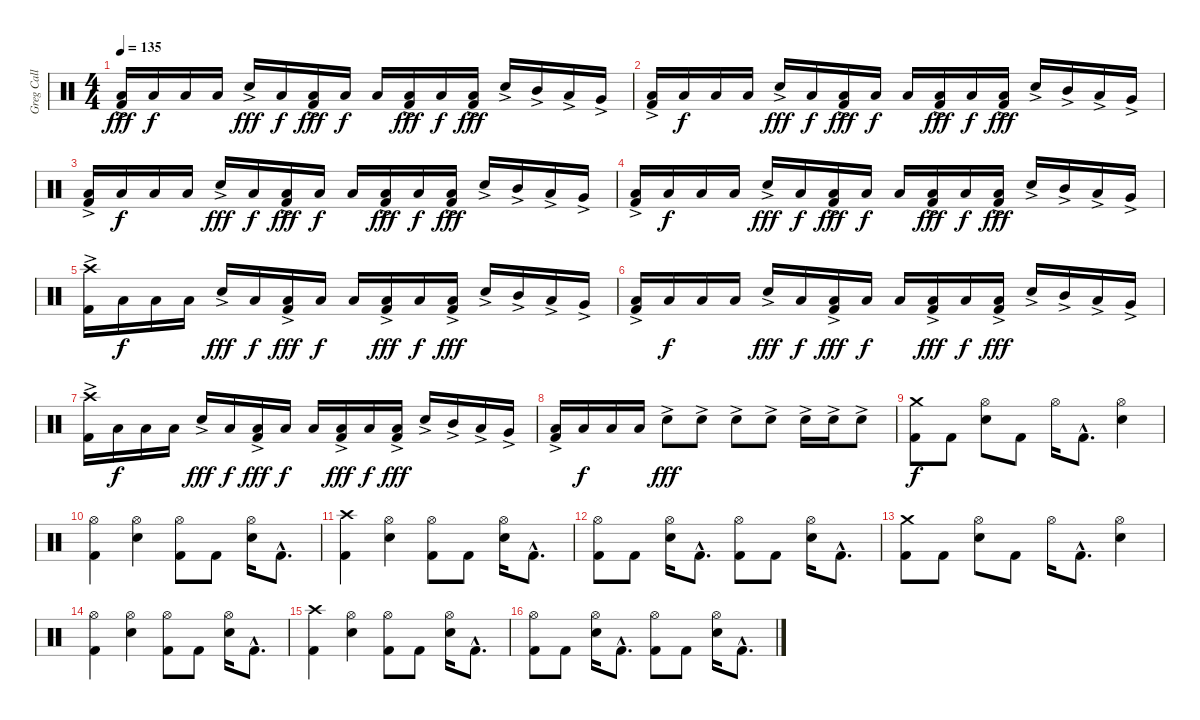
\track ("Greg Call (Drums)" "Greg Call ") {instrument percussion}
\staff {score}
\articulation defaults
\ts (4 4)
\tempo 135
\clef neutral
\ks c
("Low Floor Tom (hit)" "Kick (hit) 2"{ac}).16{dy fff} "Low Floor Tom (hit)".16{dy f} "Low Floor Tom (hit)".16 "Low Floor Tom (hit)".16 "Snare (hit) 2"{ac}.16{dy fff} "Low Floor Tom (hit)".16{dy f} ("Kick (hit) 2" "Low Floor Tom (hit)"{ac}).16{dy fff} "Low Floor Tom (hit)".16{dy f} "Low Floor Tom (hit)".16 ("Kick (hit) 2" "Low Floor Tom (hit)"{ac}).16{dy fff} "Low Floor Tom (hit)".16{dy f} ("Kick (hit) 2" "Low Floor Tom (hit)"{ac}).16{dy fff} "Snare (hit) 2"{ac}.16 "Mid Tom (hit)"{ac}.16 "Low Tom (hit)"{ac}.16 "Very Low Tom (hit)"{ac}.16 |
("Low Floor Tom (hit)" "Kick (hit) 2"{ac}).16 "Low Floor Tom (hit)".16{dy f} "Low Floor Tom (hit)".16 "Low Floor Tom (hit)".16 "Snare (hit) 2"{ac}.16{dy fff} "Low Floor Tom (hit)".16{dy f} ("Kick (hit) 2" "Low Floor Tom (hit)"{ac}).16{dy fff} "Low Floor Tom (hit)".16{dy f} "Low Floor Tom (hit)".16 ("Kick (hit) 2" "Low Floor Tom (hit)"{ac}).16{dy fff} "Low Floor Tom (hit)".16{dy f} ("Kick (hit) 2" "Low Floor Tom (hit)"{ac}).16{dy fff} "Snare (hit) 2"{ac}.16 "Mid Tom (hit)"{ac}.16 "Low Tom (hit)"{ac}.16 "Very Low Tom (hit)"{ac}.16 |
("Low Floor Tom (hit)" "Kick (hit) 2"{ac}).16 "Low Floor Tom (hit)".16{dy f} "Low Floor Tom (hit)".16 "Low Floor Tom (hit)".16 "Snare (hit) 2"{ac}.16{dy fff} "Low Floor Tom (hit)".16{dy f} ("Kick (hit) 2" "Low Floor Tom (hit)"{ac}).16{dy fff} "Low Floor Tom (hit)".16{dy f} "Low Floor Tom (hit)".16 ("Kick (hit) 2" "Low Floor Tom (hit)"{ac}).16{dy fff} "Low Floor Tom (hit)".16{dy f} ("Kick (hit) 2" "Low Floor Tom (hit)"{ac}).16{dy fff} "Snare (hit) 2"{ac}.16 "Mid Tom (hit)"{ac}.16 "Low Tom (hit)"{ac}.16 "Very Low Tom (hit)"{ac}.16 |
("Low Floor Tom (hit)" "Kick (hit) 2"{ac}).16 "Low Floor Tom (hit)".16{dy f} "Low Floor Tom (hit)".16 "Low Floor Tom (hit)".16 "Snare (hit) 2"{ac}.16{dy fff} "Low Floor Tom (hit)".16{dy f} ("Kick (hit) 2" "Low Floor Tom (hit)"{ac}).16{dy fff} "Low Floor Tom (hit)".16{dy f} "Low Floor Tom (hit)".16 ("Kick (hit) 2" "Low Floor Tom (hit)"{ac}).16{dy fff} "Low Floor Tom (hit)".16{dy f} ("Kick (hit) 2" "Low Floor Tom (hit)"{ac}).16{dy fff} "Snare (hit) 2"{ac}.16 "Mid Tom (hit)"{ac}.16 "Low Tom (hit)"{ac}.16 "Very Low Tom (hit)"{ac}.16 |
("Crash high (hit)" "Kick (hit) 2"{ac}).16 "Low Floor Tom (hit)".16{dy f} "Low Floor Tom (hit)".16 "Low Floor Tom (hit)".16 "Snare (hit) 2"{ac}.16{dy fff} "Low Floor Tom (hit)".16{dy f} ("Kick (hit) 2" "Low Floor Tom (hit)"{ac}).16{dy fff} "Low Floor Tom (hit)".16{dy f} "Low Floor Tom (hit)".16 ("Kick (hit) 2" "Low Floor Tom (hit)"{ac}).16{dy fff} "Low Floor Tom (hit)".16{dy f} ("Kick (hit) 2" "Low Floor Tom (hit)"{ac}).16{dy fff} "Snare (hit) 2"{ac}.16 "Mid Tom (hit)"{ac}.16 "Low Tom (hit)"{ac}.16 "Very Low Tom (hit)"{ac}.16 |
("Low Floor Tom (hit)" "Kick (hit) 2"{ac}).16 "Low Floor Tom (hit)".16{dy f} "Low Floor Tom (hit)".16 "Low Floor Tom (hit)".16 "Snare (hit) 2"{ac}.16{dy fff} "Low Floor Tom (hit)".16{dy f} ("Kick (hit) 2" "Low Floor Tom (hit)"{ac}).16{dy fff} "Low Floor Tom (hit)".16{dy f} "Low Floor Tom (hit)".16 ("Kick (hit) 2" "Low Floor Tom (hit)"{ac}).16{dy fff} "Low Floor Tom (hit)".16{dy f} ("Kick (hit) 2" "Low Floor Tom (hit)"{ac}).16{dy fff} "Snare (hit) 2"{ac}.16 "Mid Tom (hit)"{ac}.16 "Low Tom (hit)"{ac}.16 "Very Low Tom (hit)"{ac}.16 |
("Crash high (hit)" "Kick (hit) 2"{ac}).16 "Low Floor Tom (hit)".16{dy f} "Low Floor Tom (hit)".16 "Low Floor Tom (hit)".16 "Snare (hit) 2"{ac}.16{dy fff} "Low Floor Tom (hit)".16{dy f} ("Kick (hit) 2" "Low Floor Tom (hit)"{ac}).16{dy fff} "Low Floor Tom (hit)".16{dy f} "Low Floor Tom (hit)".16 ("Kick (hit) 2" "Low Floor Tom (hit)"{ac}).16{dy fff} "Low Floor Tom (hit)".16{dy f} ("Kick (hit) 2" "Low Floor Tom (hit)"{ac}).16{dy fff} "Snare (hit) 2"{ac}.16 "Mid Tom (hit)"{ac}.16 "Low Tom (hit)"{ac}.16 "Very Low Tom (hit)"{ac}.16 |
("Low Floor Tom (hit)" "Kick (hit) 2"{ac}).16 "Low Floor Tom (hit)".16{dy f} "Low Floor Tom (hit)".16 "Low Floor Tom (hit)".16 "Snare (hit) 2"{ac}.8{dy fff} "Snare (hit) 2"{ac}.8 "Snare (hit) 2"{ac}.8 "Snare (hit) 2"{ac}.8 "Snare (hit) 2"{ac}.16 "Snare (hit) 2"{ac}.16 "Snare (hit) 2"{ac}.8 |
("Crash medium (hit)" "Kick (hit) 2").8{dy f} "Kick (hit) 2".8 ("Hi-Hat (open)" "Snare (hit) 2").8 "Kick (hit) 2".8 "Hi-Hat (open)".16 "Kick (hit) 2"{hac}.8{d} ("Hi-Hat (open)" "Snare (hit) 2").4 |
("Hi-Hat (open)" "Kick (hit) 2").4 ("Hi-Hat (open)" "Snare (hit) 2").4 ("Hi-Hat (open)" "Kick (hit) 2").8 "Kick (hit) 2".8 ("Hi-Hat (open)" "Snare (hit) 2").16 "Kick (hit) 2"{hac}.8{d} |
("Crash high (hit)" "Kick (hit) 2").4 ("Hi-Hat (open)" "Snare (hit) 2").4 ("Hi-Hat (open)" "Kick (hit) 2").8 "Kick (hit) 2".8 ("Hi-Hat (open)" "Snare (hit) 2").16 "Kick (hit) 2"{hac}.8{d} |
("Hi-Hat (open)" "Kick (hit) 2").8 "Kick (hit) 2".8 ("Hi-Hat (open)" "Snare (hit) 2").16 "Kick (hit) 2"{hac}.8{d} ("Hi-Hat (open)" "Kick (hit) 2").8 "Kick (hit) 2".8 ("Hi-Hat (open)" "Snare (hit) 2").16 "Kick (hit) 2"{hac}.8{d} |
("Crash medium (hit)" "Kick (hit) 2").8 "Kick (hit) 2".8 ("Hi-Hat (open)" "Snare (hit) 2").8 "Kick (hit) 2".8 "Hi-Hat (open)".16 "Kick (hit) 2"{hac}.8{d} ("Hi-Hat (open)" "Snare (hit) 2").4 |
("Hi-Hat (open)" "Kick (hit) 2").4 ("Hi-Hat (open)" "Snare (hit) 2").4 ("Hi-Hat (open)" "Kick (hit) 2").8 "Kick (hit) 2".8 ("Hi-Hat (open)" "Snare (hit) 2").16 "Kick (hit) 2"{hac}.8{d} |
("Crash high (hit)" "Kick (hit) 2").4 ("Hi-Hat (open)" "Snare (hit) 2").4 ("Hi-Hat (open)" "Kick (hit) 2").8 "Kick (hit) 2".8 ("Hi-Hat (open)" "Snare (hit) 2").16 "Kick (hit) 2"{hac}.8{d} |
("Hi-Hat (open)" "Kick (hit) 2").8 "Kick (hit) 2".8 ("Hi-Hat (open)" "Snare (hit) 2").16 "Kick (hit) 2"{hac}.8{d} ("Hi-Hat (open)" "Kick (hit) 2").8 "Kick (hit) 2".8 ("Hi-Hat (open)" "Snare (hit) 2").16 "Kick (hit) 2"{hac}.8{d}
